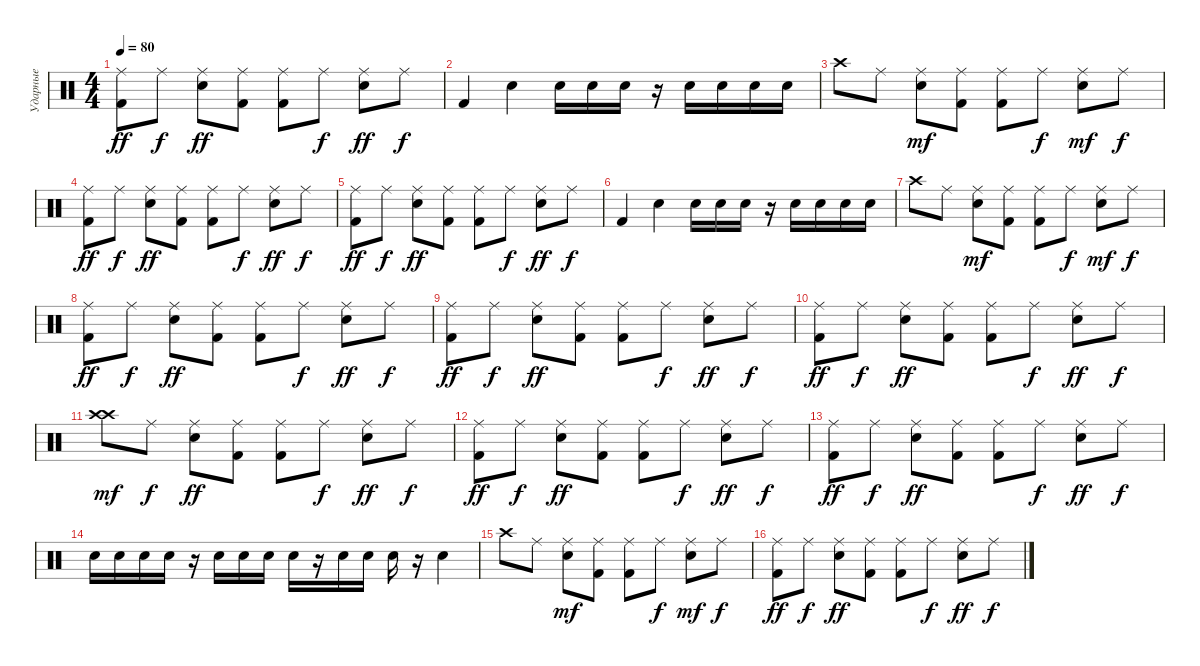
\track ("Ударные" "Ударные") {instrument percussion}
\staff {score}
\articulation defaults
\ts (4 4)
\tempo 80
\clef neutral
\ks c
("Kick (hit) 2" "Ride (middle)").8{dy ff} "Ride (middle)".8{dy f} ("Snare (hit) 2" "Ride (middle)").8{dy ff} ("Kick (hit) 2" "Ride (middle)").8 ("Kick (hit) 2" "Ride (middle)").8 "Ride (middle)".8{dy f} ("Snare (hit) 2" "Ride (middle)").8{dy ff} "Ride (middle)".8{dy f} |
"Kick (hit) 2".4 "Snare (hit) 2".4 "Snare (hit) 2".16 "Snare (hit) 2".16 "Snare (hit) 2".16 r.16 "Snare (hit) 2".16 "Snare (hit) 2".16 "Snare (hit) 2".16 "Snare (hit) 2".16 |
"Crash high (hit)".8 "Ride (middle)".8 ("Snare (hit) 2" "Ride (middle)").8{dy mf} ("Kick (hit) 2" "Ride (middle)").8 ("Kick (hit) 2" "Ride (middle)").8 "Ride (middle)".8{dy f} ("Snare (hit) 2" "Ride (middle)").8{dy mf} "Ride (middle)".8{dy f} |
("Kick (hit) 2" "Ride (middle)").8{dy ff} "Ride (middle)".8{dy f} ("Snare (hit) 2" "Ride (middle)").8{dy ff} ("Kick (hit) 2" "Ride (middle)").8 ("Kick (hit) 2" "Ride (middle)").8 "Ride (middle)".8{dy f} ("Snare (hit) 2" "Ride (middle)").8{dy ff} "Ride (middle)".8{dy f} |
("Kick (hit) 2" "Ride (middle)").8{dy ff} "Ride (middle)".8{dy f} ("Snare (hit) 2" "Ride (middle)").8{dy ff} ("Kick (hit) 2" "Ride (middle)").8 ("Kick (hit) 2" "Ride (middle)").8 "Ride (middle)".8{dy f} ("Snare (hit) 2" "Ride (middle)").8{dy ff} "Ride (middle)".8{dy f} |
"Kick (hit) 2".4 "Snare (hit) 2".4 "Snare (hit) 2".16 "Snare (hit) 2".16 "Snare (hit) 2".16 r.16 "Snare (hit) 2".16 "Snare (hit) 2".16 "Snare (hit) 2".16 "Snare (hit) 2".16 |
"Crash high (hit)".8 "Ride (middle)".8 ("Snare (hit) 2" "Ride (middle)").8{dy mf} ("Kick (hit) 2" "Ride (middle)").8 ("Kick (hit) 2" "Ride (middle)").8 "Ride (middle)".8{dy f} ("Snare (hit) 2" "Ride (middle)").8{dy mf} "Ride (middle)".8{dy f} |
("Kick (hit) 2" "Ride (middle)").8{dy ff} "Ride (middle)".8{dy f} ("Snare (hit) 2" "Ride (middle)").8{dy ff} ("Kick (hit) 2" "Ride (middle)").8 ("Kick (hit) 2" "Ride (middle)").8 "Ride (middle)".8{dy f} ("Snare (hit) 2" "Ride (middle)").8{dy ff} "Ride (middle)".8{dy f} |
("Kick (hit) 2" "Ride (middle)").8{dy ff} "Ride (middle)".8{dy f} ("Snare (hit) 2" "Ride (middle)").8{dy ff} ("Kick (hit) 2" "Ride (middle)").8 ("Kick (hit) 2" "Ride (middle)").8 "Ride (middle)".8{dy f} ("Snare (hit) 2" "Ride (middle)").8{dy ff} "Ride (middle)".8{dy f} |
("Kick (hit) 2" "Ride (middle)").8{dy ff} "Ride (middle)".8{dy f} ("Snare (hit) 2" "Ride (middle)").8{dy ff} ("Kick (hit) 2" "Ride (middle)").8 ("Kick (hit) 2" "Ride (middle)").8 "Ride (middle)".8{dy f} ("Snare (hit) 2" "Ride (middle)").8{dy ff} "Ride (middle)".8{dy f} |
("Crash high (hit)" "Crash high (hit)").8{dy mf} "Ride (middle)".8{dy f} ("Snare (hit) 2" "Ride (middle)").8{dy ff} ("Kick (hit) 2" "Ride (middle)").8 ("Kick (hit) 2" "Ride (middle)").8 "Ride (middle)".8{dy f} ("Snare (hit) 2" "Ride (middle)").8{dy ff} "Ride (middle)".8{dy f} |
("Kick (hit) 2" "Ride (middle)").8{dy ff} "Ride (middle)".8{dy f} ("Snare (hit) 2" "Ride (middle)").8{dy ff} ("Kick (hit) 2" "Ride (middle)").8 ("Kick (hit) 2" "Ride (middle)").8 "Ride (middle)".8{dy f} ("Snare (hit) 2" "Ride (middle)").8{dy ff} "Ride (middle)".8{dy f} |
("Kick (hit) 2" "Ride (middle)").8{dy ff} "Ride (middle)".8{dy f} ("Snare (hit) 2" "Ride (middle)").8{dy ff} ("Kick (hit) 2" "Ride (middle)").8 ("Kick (hit) 2" "Ride (middle)").8 "Ride (middle)".8{dy f} ("Snare (hit) 2" "Ride (middle)").8{dy ff} "Ride (middle)".8{dy f} |
"Snare (hit) 2".16 "Snare (hit) 2".16 "Snare (hit) 2".16 "Snare (hit) 2".16 r.16 "Snare (hit) 2".16 "Snare (hit) 2".16 "Snare (hit) 2".16 "Snare (hit) 2".16 r.16 "Snare (hit) 2".16 "Snare (hit) 2".16 "Snare (hit) 2".16 r.16 "Snare (hit) 2".4 |
"Crash high (hit)".8 "Ride (middle)".8 ("Snare (hit) 2" "Ride (middle)").8{dy mf} ("Kick (hit) 2" "Ride (middle)").8 ("Kick (hit) 2" "Ride (middle)").8 "Ride (middle)".8{dy f} ("Snare (hit) 2" "Ride (middle)").8{dy mf} "Ride (middle)".8{dy f} |
("Kick (hit) 2" "Ride (middle)").8{dy ff} "Ride (middle)".8{dy f} ("Snare (hit) 2" "Ride (middle)").8{dy ff} ("Kick (hit) 2" "Ride (middle)").8 ("Kick (hit) 2" "Ride (middle)").8 "Ride (middle)".8{dy f} ("Snare (hit) 2" "Ride (middle)").8{dy ff} "Ride (middle)".8{dy f}
